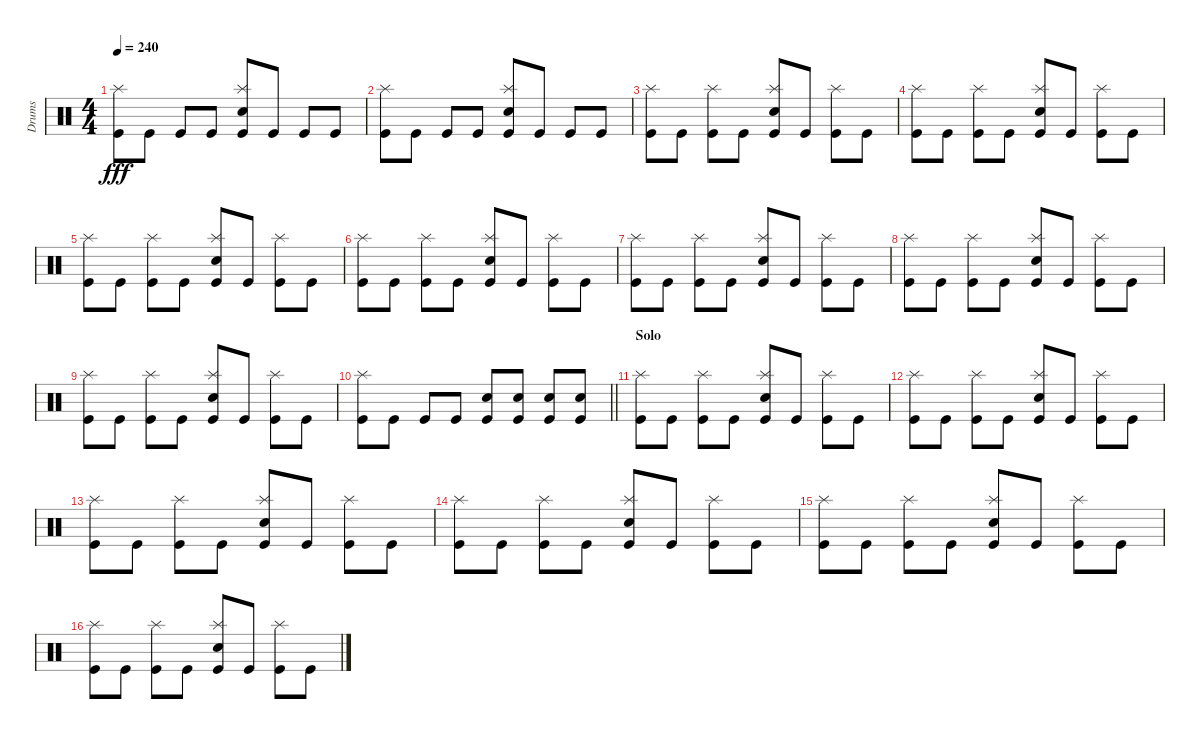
\track ("Drums" "Drums") {instrument percussion}
\staff {score}
\articulation defaults
\ts (4 4)
\tempo 240
\clef neutral
\ks c
("Kick (hit)" "Splash (hit)").8{dy fff} "Kick (hit)".8 "Kick (hit)".8 "Kick (hit)".8 ("Kick (hit)" "Electric Snare (hit)" "Splash (hit)").8 "Kick (hit)".8 "Kick (hit)".8 "Kick (hit)".8 |
("Kick (hit)" "Splash (hit)").8 "Kick (hit)".8 "Kick (hit)".8 "Kick (hit)".8 ("Kick (hit)" "Electric Snare (hit)" "Splash (hit)").8 "Kick (hit)".8 "Kick (hit)".8 "Kick (hit)".8 |
("Kick (hit)" "Splash (hit)").8 "Kick (hit)".8 ("Kick (hit)" "Splash (hit)").8 "Kick (hit)".8 ("Kick (hit)" "Electric Snare (hit)" "Splash (hit)").8 "Kick (hit)".8 ("Kick (hit)" "Splash (hit)").8 "Kick (hit)".8 |
("Kick (hit)" "Splash (hit)").8 "Kick (hit)".8 ("Kick (hit)" "Splash (hit)").8 "Kick (hit)".8 ("Kick (hit)" "Electric Snare (hit)" "Splash (hit)").8 "Kick (hit)".8 ("Kick (hit)" "Splash (hit)").8 "Kick (hit)".8 |
("Kick (hit)" "Splash (hit)").8 "Kick (hit)".8 ("Kick (hit)" "Splash (hit)").8 "Kick (hit)".8 ("Kick (hit)" "Electric Snare (hit)" "Splash (hit)").8 "Kick (hit)".8 ("Kick (hit)" "Splash (hit)").8 "Kick (hit)".8 |
("Kick (hit)" "Splash (hit)").8 "Kick (hit)".8 ("Kick (hit)" "Splash (hit)").8 "Kick (hit)".8 ("Kick (hit)" "Electric Snare (hit)" "Splash (hit)").8 "Kick (hit)".8 ("Kick (hit)" "Splash (hit)").8 "Kick (hit)".8 |
("Kick (hit)" "Splash (hit)").8 "Kick (hit)".8 ("Kick (hit)" "Splash (hit)").8 "Kick (hit)".8 ("Kick (hit)" "Electric Snare (hit)" "Splash (hit)").8 "Kick (hit)".8 ("Kick (hit)" "Splash (hit)").8 "Kick (hit)".8 |
("Kick (hit)" "Splash (hit)").8 "Kick (hit)".8 ("Kick (hit)" "Splash (hit)").8 "Kick (hit)".8 ("Kick (hit)" "Electric Snare (hit)" "Splash (hit)").8 "Kick (hit)".8 ("Kick (hit)" "Splash (hit)").8 "Kick (hit)".8 |
("Kick (hit)" "Splash (hit)").8 "Kick (hit)".8 ("Kick (hit)" "Splash (hit)").8 "Kick (hit)".8 ("Kick (hit)" "Electric Snare (hit)" "Splash (hit)").8 "Kick (hit)".8 ("Kick (hit)" "Splash (hit)").8 "Kick (hit)".8 |
\barLineRight lightlight
("Kick (hit)" "Splash (hit)").8 "Kick (hit)".8 "Kick (hit)".8 "Kick (hit)".8 ("Kick (hit)" "Electric Snare (hit)").8 ("Kick (hit)" "Electric Snare (hit)").8 ("Kick (hit)" "Electric Snare (hit)").8 ("Kick (hit)" "Electric Snare (hit)").8 |
\section ("" "Solo")
("Kick (hit)" "Splash (hit)").8 "Kick (hit)".8 ("Kick (hit)" "Splash (hit)").8 "Kick (hit)".8 ("Kick (hit)" "Electric Snare (hit)" "Splash (hit)").8 "Kick (hit)".8 ("Kick (hit)" "Splash (hit)").8 "Kick (hit)".8 |
("Kick (hit)" "Splash (hit)").8 "Kick (hit)".8 ("Kick (hit)" "Splash (hit)").8 "Kick (hit)".8 ("Kick (hit)" "Electric Snare (hit)" "Splash (hit)").8 "Kick (hit)".8 ("Kick (hit)" "Splash (hit)").8 "Kick (hit)".8 |
("Kick (hit)" "Splash (hit)").8 "Kick (hit)".8 ("Kick (hit)" "Splash (hit)").8 "Kick (hit)".8 ("Kick (hit)" "Electric Snare (hit)" "Splash (hit)").8 "Kick (hit)".8 ("Kick (hit)" "Splash (hit)").8 "Kick (hit)".8 |
("Kick (hit)" "Splash (hit)").8 "Kick (hit)".8 ("Kick (hit)" "Splash (hit)").8 "Kick (hit)".8 ("Kick (hit)" "Electric Snare (hit)" "Splash (hit)").8 "Kick (hit)".8 ("Kick (hit)" "Splash (hit)").8 "Kick (hit)".8 |
("Kick (hit)" "Splash (hit)").8 "Kick (hit)".8 ("Kick (hit)" "Splash (hit)").8 "Kick (hit)".8 ("Kick (hit)" "Electric Snare (hit)" "Splash (hit)").8 "Kick (hit)".8 ("Kick (hit)" "Splash (hit)").8 "Kick (hit)".8 |
("Kick (hit)" "Splash (hit)").8 "Kick (hit)".8 ("Kick (hit)" "Splash (hit)").8 "Kick (hit)".8 ("Kick (hit)" "Electric Snare (hit)" "Splash (hit)").8 "Kick (hit)".8 ("Kick (hit)" "Splash (hit)").8 "Kick (hit)".8
